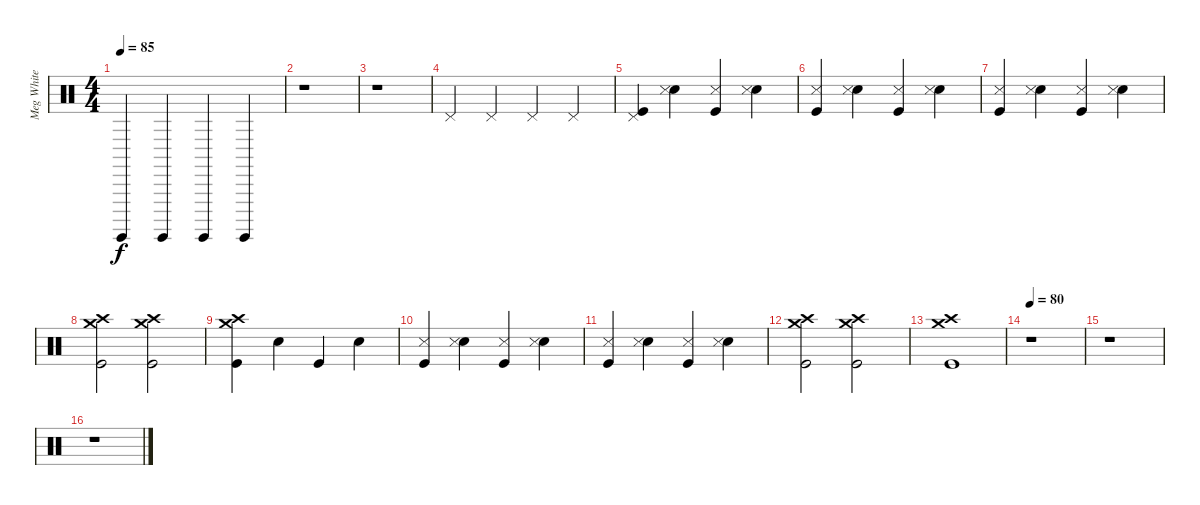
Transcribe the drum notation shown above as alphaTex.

\track ("Meg White" "Meg White") {instrument percussion}
\staff {score}
\articulation defaults
\ts (4 4)
\tempo 85
\clef neutral
\ks c "Surdo (hit)".4{dy f} "Surdo (hit)".4 "Surdo (hit)".4 "Surdo (hit)".4
|
r.1 |
r.1 |
"Pedal Hi-Hat (hit)".4 "Pedal Hi-Hat (hit)".4 "Pedal Hi-Hat (hit)".4 "Pedal Hi-Hat (hit)".4 |
("Kick (hit)" "Pedal Hi-Hat (hit)").4 ("Snare (hit) 2" "Snare (side stick) 3").4 ("Kick (hit)" "Snare (side stick) 3").4 ("Snare (hit) 2" "Snare (side stick) 3").4 |
("Kick (hit)" "Snare (side stick) 3").4 ("Snare (hit) 2" "Snare (side stick) 3").4 ("Kick (hit)" "Snare (side stick) 3").4 ("Snare (hit) 2" "Snare (side stick) 3").4 |
("Kick (hit)" "Snare (side stick) 3").4 ("Snare (hit) 2" "Snare (side stick) 3").4 ("Kick (hit)" "Snare (side stick) 3").4 ("Snare (hit) 2" "Snare (side stick) 3").4 |
("Kick (hit)" "Crash medium (hit)" "Crash high (hit)").2 ("Kick (hit)" "Crash medium (hit)" "Crash high (hit)").2 |
("Kick (hit)" "Crash medium (hit)" "Crash high (hit)").4 "Snare (hit) 2".4 "Kick (hit)".4 "Snare (hit) 2".4 |
("Kick (hit)" "Snare (side stick) 3").4 ("Snare (hit) 2" "Snare (side stick) 3").4 ("Kick (hit)" "Snare (side stick) 3").4 ("Snare (hit) 2" "Snare (side stick) 3").4 |
("Kick (hit)" "Snare (side stick) 3").4 ("Snare (hit) 2" "Snare (side stick) 3").4 ("Kick (hit)" "Snare (side stick) 3").4 ("Snare (hit) 2" "Snare (side stick) 3").4 |
("Kick (hit)" "Crash medium (hit)" "Crash high (hit)").2 ("Kick (hit)" "Crash medium (hit)" "Crash high (hit)").2 |
("Kick (hit)" "Crash medium (hit)" "Crash high (hit)").1 |
\tempo 80
r.1 |
r.1 |
r.1
